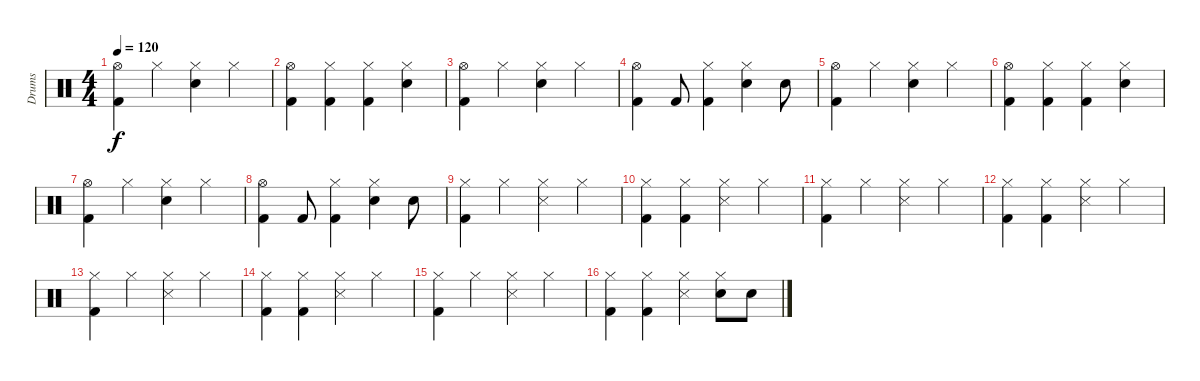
\track ("Drums" "Drums") {instrument percussion}
\staff {score}
\articulation defaults
\ts (4 4)
\tempo 120
\clef neutral
\ks c
("Hi-Hat (open)" "Kick (hit) 2").4{dy f} "Hi-Hat (closed)".4 ("Hi-Hat (closed)" "Electric Snare (hit)").4 "Hi-Hat (closed)".4 |
("Hi-Hat (open)" "Kick (hit) 2").4 ("Hi-Hat (closed)" "Kick (hit) 2").4 ("Hi-Hat (closed)" "Kick (hit) 2").4 ("Hi-Hat (closed)" "Electric Snare (hit)").4 |
("Hi-Hat (open)" "Kick (hit) 2").4 "Hi-Hat (closed)".4 ("Hi-Hat (closed)" "Electric Snare (hit)").4 "Hi-Hat (closed)".4 |
("Hi-Hat (open)" "Kick (hit) 2").4 "Kick (hit) 2".8 ("Hi-Hat (closed)" "Kick (hit) 2").4 ("Hi-Hat (closed)" "Electric Snare (hit)").4 "Electric Snare (hit)".8 |
("Hi-Hat (open)" "Kick (hit) 2").4 "Hi-Hat (closed)".4 ("Hi-Hat (closed)" "Electric Snare (hit)").4 "Hi-Hat (closed)".4 |
("Hi-Hat (open)" "Kick (hit) 2").4 ("Hi-Hat (closed)" "Kick (hit) 2").4 ("Hi-Hat (closed)" "Kick (hit) 2").4 ("Hi-Hat (closed)" "Electric Snare (hit)").4 |
("Hi-Hat (open)" "Kick (hit) 2").4 "Hi-Hat (closed)".4 ("Hi-Hat (closed)" "Electric Snare (hit)").4 "Hi-Hat (closed)".4 |
("Hi-Hat (open)" "Kick (hit) 2").4 "Kick (hit) 2".8 ("Hi-Hat (closed)" "Kick (hit) 2").4 ("Hi-Hat (closed)" "Electric Snare (hit)").4 "Electric Snare (hit)".8 |
("Hi-Hat (closed)" "Kick (hit) 2").4 "Hi-Hat (closed)".4 ("Hi-Hat (closed)" "Snare (side stick) 3").4 "Hi-Hat (closed)".4 |
("Hi-Hat (closed)" "Kick (hit) 2").4 ("Hi-Hat (closed)" "Kick (hit) 2").4 ("Hi-Hat (closed)" "Snare (side stick) 3").4 "Hi-Hat (closed)".4 |
("Hi-Hat (closed)" "Kick (hit) 2").4 "Hi-Hat (closed)".4 ("Hi-Hat (closed)" "Snare (side stick) 3").4 "Hi-Hat (closed)".4 |
("Hi-Hat (closed)" "Kick (hit) 2").4 ("Hi-Hat (closed)" "Kick (hit) 2").4 ("Hi-Hat (closed)" "Snare (side stick) 3").4 "Hi-Hat (closed)".4 |
("Hi-Hat (closed)" "Kick (hit) 2").4 "Hi-Hat (closed)".4 ("Hi-Hat (closed)" "Snare (side stick) 3").4 "Hi-Hat (closed)".4 |
("Hi-Hat (closed)" "Kick (hit) 2").4 ("Hi-Hat (closed)" "Kick (hit) 2").4 ("Hi-Hat (closed)" "Snare (side stick) 3").4 "Hi-Hat (closed)".4 |
("Hi-Hat (closed)" "Kick (hit) 2").4 "Hi-Hat (closed)".4 ("Hi-Hat (closed)" "Snare (side stick) 3").4 "Hi-Hat (closed)".4 |
("Hi-Hat (closed)" "Kick (hit) 2").4 ("Hi-Hat (closed)" "Kick (hit) 2").4 ("Hi-Hat (closed)" "Snare (side stick) 3").4 ("Hi-Hat (closed)" "Electric Snare (hit)").8 "Electric Snare (hit)".8
